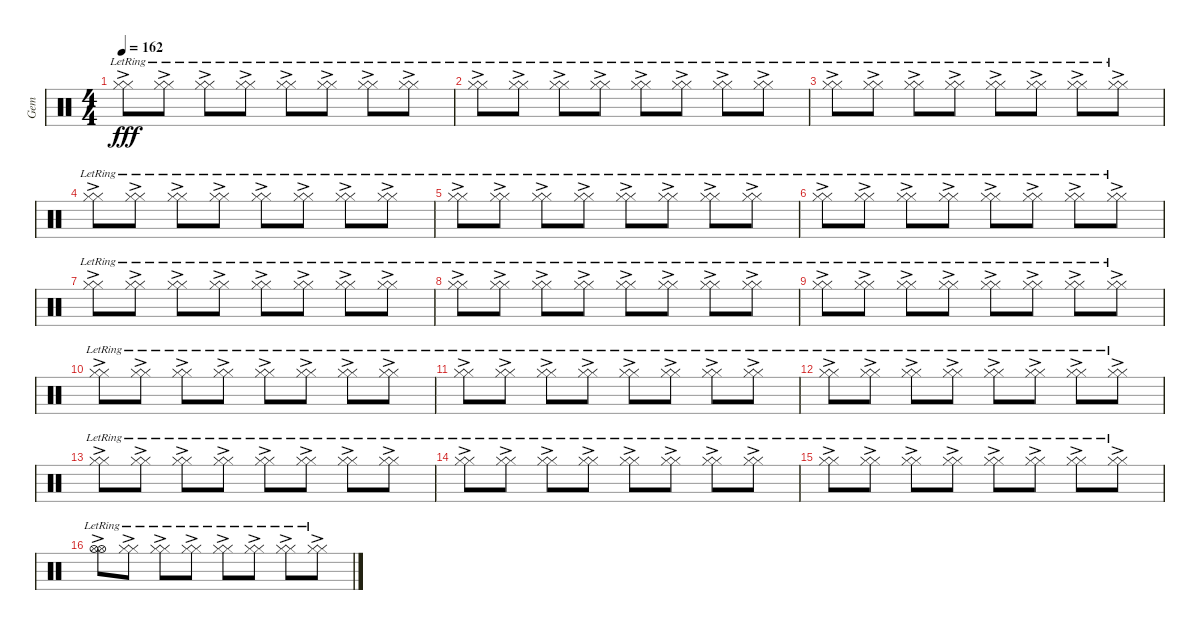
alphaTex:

\track ("Gem" "Gem") {instrument percussion}
\staff {score}
\articulation defaults
\ts (4 4)
\tempo 162
\clef neutral
\ks c
("Hi-Hat (closed)"{ac lr} "Hi-Hat (closed)"{lr}).8{dy fff} ("Hi-Hat (closed)"{ac lr} "Hi-Hat (closed)"{lr}).8 ("Hi-Hat (closed)"{ac lr} "Hi-Hat (closed)"{lr}).8 ("Hi-Hat (closed)"{ac lr} "Hi-Hat (closed)"{lr}).8 ("Hi-Hat (closed)"{ac lr} "Hi-Hat (closed)"{lr}).8 ("Hi-Hat (closed)"{ac lr} "Hi-Hat (closed)"{lr}).8 ("Hi-Hat (closed)"{ac lr} "Hi-Hat (closed)"{lr}).8 ("Hi-Hat (closed)"{ac lr} "Hi-Hat (closed)"{lr}).8 |
("Hi-Hat (closed)"{ac lr} "Hi-Hat (closed)"{lr}).8 ("Hi-Hat (closed)"{ac lr} "Hi-Hat (closed)"{lr}).8 ("Hi-Hat (closed)"{ac lr} "Hi-Hat (closed)"{lr}).8 ("Hi-Hat (closed)"{ac lr} "Hi-Hat (closed)"{lr}).8 ("Hi-Hat (closed)"{ac lr} "Hi-Hat (closed)"{lr}).8 ("Hi-Hat (closed)"{ac lr} "Hi-Hat (closed)"{lr}).8 ("Hi-Hat (closed)"{ac lr} "Hi-Hat (closed)"{lr}).8 ("Hi-Hat (closed)"{ac lr} "Hi-Hat (closed)"{lr}).8 |
("Hi-Hat (closed)"{ac lr} "Hi-Hat (closed)"{lr}).8 ("Hi-Hat (closed)"{ac lr} "Hi-Hat (closed)"{lr}).8 ("Hi-Hat (closed)"{ac lr} "Hi-Hat (closed)"{lr}).8 ("Hi-Hat (closed)"{ac lr} "Hi-Hat (closed)"{lr}).8 ("Hi-Hat (closed)"{ac lr} "Hi-Hat (closed)"{lr}).8 ("Hi-Hat (closed)"{ac lr} "Hi-Hat (closed)"{lr}).8 ("Hi-Hat (closed)"{ac lr} "Hi-Hat (closed)"{lr}).8 ("Hi-Hat (closed)"{ac lr} "Hi-Hat (closed)"{lr}).8 |
("Hi-Hat (closed)"{ac lr} "Hi-Hat (closed)"{lr}).8 ("Hi-Hat (closed)"{ac lr} "Hi-Hat (closed)"{lr}).8 ("Hi-Hat (closed)"{ac lr} "Hi-Hat (closed)"{lr}).8 ("Hi-Hat (closed)"{ac lr} "Hi-Hat (closed)"{lr}).8 ("Hi-Hat (closed)"{ac lr} "Hi-Hat (closed)"{lr}).8 ("Hi-Hat (closed)"{ac lr} "Hi-Hat (closed)"{lr}).8 ("Hi-Hat (closed)"{ac lr} "Hi-Hat (closed)"{lr}).8 ("Hi-Hat (closed)"{ac lr} "Hi-Hat (closed)"{lr}).8 |
("Hi-Hat (closed)"{ac lr} "Hi-Hat (closed)"{lr}).8 ("Hi-Hat (closed)"{ac lr} "Hi-Hat (closed)"{lr}).8 ("Hi-Hat (closed)"{ac lr} "Hi-Hat (closed)"{lr}).8 ("Hi-Hat (closed)"{ac lr} "Hi-Hat (closed)"{lr}).8 ("Hi-Hat (closed)"{ac lr} "Hi-Hat (closed)"{lr}).8 ("Hi-Hat (closed)"{ac lr} "Hi-Hat (closed)"{lr}).8 ("Hi-Hat (closed)"{ac lr} "Hi-Hat (closed)"{lr}).8 ("Hi-Hat (closed)"{ac lr} "Hi-Hat (closed)"{lr}).8 |
("Hi-Hat (closed)"{ac lr} "Hi-Hat (closed)"{lr}).8 ("Hi-Hat (closed)"{ac lr} "Hi-Hat (closed)"{lr}).8 ("Hi-Hat (closed)"{ac lr} "Hi-Hat (closed)"{lr}).8 ("Hi-Hat (closed)"{ac lr} "Hi-Hat (closed)"{lr}).8 ("Hi-Hat (closed)"{ac lr} "Hi-Hat (closed)"{lr}).8 ("Hi-Hat (closed)"{ac lr} "Hi-Hat (closed)"{lr}).8 ("Hi-Hat (closed)"{ac lr} "Hi-Hat (closed)"{lr}).8 ("Hi-Hat (closed)"{ac lr} "Hi-Hat (closed)"{lr}).8 |
("Hi-Hat (closed)"{ac lr} "Hi-Hat (closed)"{lr}).8 ("Hi-Hat (closed)"{ac lr} "Hi-Hat (closed)"{lr}).8 ("Hi-Hat (closed)"{ac lr} "Hi-Hat (closed)"{lr}).8 ("Hi-Hat (closed)"{ac lr} "Hi-Hat (closed)"{lr}).8 ("Hi-Hat (closed)"{ac lr} "Hi-Hat (closed)"{lr}).8 ("Hi-Hat (closed)"{ac lr} "Hi-Hat (closed)"{lr}).8 ("Hi-Hat (closed)"{ac lr} "Hi-Hat (closed)"{lr}).8 ("Hi-Hat (closed)"{ac lr} "Hi-Hat (closed)"{lr}).8 |
("Hi-Hat (closed)"{ac lr} "Hi-Hat (closed)"{lr}).8 ("Hi-Hat (closed)"{ac lr} "Hi-Hat (closed)"{lr}).8 ("Hi-Hat (closed)"{ac lr} "Hi-Hat (closed)"{lr}).8 ("Hi-Hat (closed)"{ac lr} "Hi-Hat (closed)"{lr}).8 ("Hi-Hat (closed)"{ac lr} "Hi-Hat (closed)"{lr}).8 ("Hi-Hat (closed)"{ac lr} "Hi-Hat (closed)"{lr}).8 ("Hi-Hat (closed)"{ac lr} "Hi-Hat (closed)"{lr}).8 ("Hi-Hat (closed)"{ac lr} "Hi-Hat (closed)"{lr}).8 |
("Hi-Hat (closed)"{ac lr} "Hi-Hat (closed)"{lr}).8 ("Hi-Hat (closed)"{ac lr} "Hi-Hat (closed)"{lr}).8 ("Hi-Hat (closed)"{ac lr} "Hi-Hat (closed)"{lr}).8 ("Hi-Hat (closed)"{ac lr} "Hi-Hat (closed)"{lr}).8 ("Hi-Hat (closed)"{ac lr} "Hi-Hat (closed)"{lr}).8 ("Hi-Hat (closed)"{ac lr} "Hi-Hat (closed)"{lr}).8 ("Hi-Hat (closed)"{ac lr} "Hi-Hat (closed)"{lr}).8 ("Hi-Hat (closed)"{ac lr} "Hi-Hat (closed)"{lr}).8 |
("Hi-Hat (closed)"{ac lr} "Hi-Hat (closed)"{lr}).8 ("Hi-Hat (closed)"{ac lr} "Hi-Hat (closed)"{lr}).8 ("Hi-Hat (closed)"{ac lr} "Hi-Hat (closed)"{lr}).8 ("Hi-Hat (closed)"{ac lr} "Hi-Hat (closed)"{lr}).8 ("Hi-Hat (closed)"{ac lr} "Hi-Hat (closed)"{lr}).8 ("Hi-Hat (closed)"{ac lr} "Hi-Hat (closed)"{lr}).8 ("Hi-Hat (closed)"{ac lr} "Hi-Hat (closed)"{lr}).8 ("Hi-Hat (closed)"{ac lr} "Hi-Hat (closed)"{lr}).8 |
("Hi-Hat (closed)"{ac lr} "Hi-Hat (closed)"{lr}).8 ("Hi-Hat (closed)"{ac lr} "Hi-Hat (closed)"{lr}).8 ("Hi-Hat (closed)"{ac lr} "Hi-Hat (closed)"{lr}).8 ("Hi-Hat (closed)"{ac lr} "Hi-Hat (closed)"{lr}).8 ("Hi-Hat (closed)"{ac lr} "Hi-Hat (closed)"{lr}).8 ("Hi-Hat (closed)"{ac lr} "Hi-Hat (closed)"{lr}).8 ("Hi-Hat (closed)"{ac lr} "Hi-Hat (closed)"{lr}).8 ("Hi-Hat (closed)"{ac lr} "Hi-Hat (closed)"{lr}).8 |
("Hi-Hat (closed)"{ac lr} "Hi-Hat (closed)"{lr}).8 ("Hi-Hat (closed)"{ac lr} "Hi-Hat (closed)"{lr}).8 ("Hi-Hat (closed)"{ac lr} "Hi-Hat (closed)"{lr}).8 ("Hi-Hat (closed)"{ac lr} "Hi-Hat (closed)"{lr}).8 ("Hi-Hat (closed)"{ac lr} "Hi-Hat (closed)"{lr}).8 ("Hi-Hat (closed)"{ac lr} "Hi-Hat (closed)"{lr}).8 ("Hi-Hat (closed)"{ac lr} "Hi-Hat (closed)"{lr}).8 ("Hi-Hat (closed)"{ac lr} "Hi-Hat (closed)"{lr}).8 |
("Hi-Hat (closed)"{ac lr} "Hi-Hat (closed)"{lr}).8 ("Hi-Hat (closed)"{ac lr} "Hi-Hat (closed)"{lr}).8 ("Hi-Hat (closed)"{ac lr} "Hi-Hat (closed)"{lr}).8 ("Hi-Hat (closed)"{ac lr} "Hi-Hat (closed)"{lr}).8 ("Hi-Hat (closed)"{ac lr} "Hi-Hat (closed)"{lr}).8 ("Hi-Hat (closed)"{ac lr} "Hi-Hat (closed)"{lr}).8 ("Hi-Hat (closed)"{ac lr} "Hi-Hat (closed)"{lr}).8 ("Hi-Hat (closed)"{ac lr} "Hi-Hat (closed)"{lr}).8 |
("Hi-Hat (closed)"{ac lr} "Hi-Hat (closed)"{lr}).8 ("Hi-Hat (closed)"{ac lr} "Hi-Hat (closed)"{lr}).8 ("Hi-Hat (closed)"{ac lr} "Hi-Hat (closed)"{lr}).8 ("Hi-Hat (closed)"{ac lr} "Hi-Hat (closed)"{lr}).8 ("Hi-Hat (closed)"{ac lr} "Hi-Hat (closed)"{lr}).8 ("Hi-Hat (closed)"{ac lr} "Hi-Hat (closed)"{lr}).8 ("Hi-Hat (closed)"{ac lr} "Hi-Hat (closed)"{lr}).8 ("Hi-Hat (closed)"{ac lr} "Hi-Hat (closed)"{lr}).8 |
("Hi-Hat (closed)"{ac lr} "Hi-Hat (closed)"{lr}).8 ("Hi-Hat (closed)"{ac lr} "Hi-Hat (closed)"{lr}).8 ("Hi-Hat (closed)"{ac lr} "Hi-Hat (closed)"{lr}).8 ("Hi-Hat (closed)"{ac lr} "Hi-Hat (closed)"{lr}).8 ("Hi-Hat (closed)"{ac lr} "Hi-Hat (closed)"{lr}).8 ("Hi-Hat (closed)"{ac lr} "Hi-Hat (closed)"{lr}).8 ("Hi-Hat (closed)"{ac lr} "Hi-Hat (closed)"{lr}).8 ("Hi-Hat (closed)"{ac lr} "Hi-Hat (closed)"{lr}).8 |
("Hi-Hat (open)"{ac lr} "Hi-Hat (open)"{lr}).8 ("Hi-Hat (closed)"{ac lr} "Hi-Hat (closed)"{lr}).8 ("Hi-Hat (closed)"{ac lr} "Hi-Hat (closed)"{lr}).8 ("Hi-Hat (closed)"{ac lr} "Hi-Hat (closed)"{lr}).8 ("Hi-Hat (closed)"{ac lr} "Hi-Hat (closed)"{lr}).8 ("Hi-Hat (closed)"{ac lr} "Hi-Hat (closed)"{lr}).8 ("Hi-Hat (closed)"{ac lr} "Hi-Hat (closed)"{lr}).8 ("Hi-Hat (closed)"{ac lr} "Hi-Hat (closed)"{lr}).8
